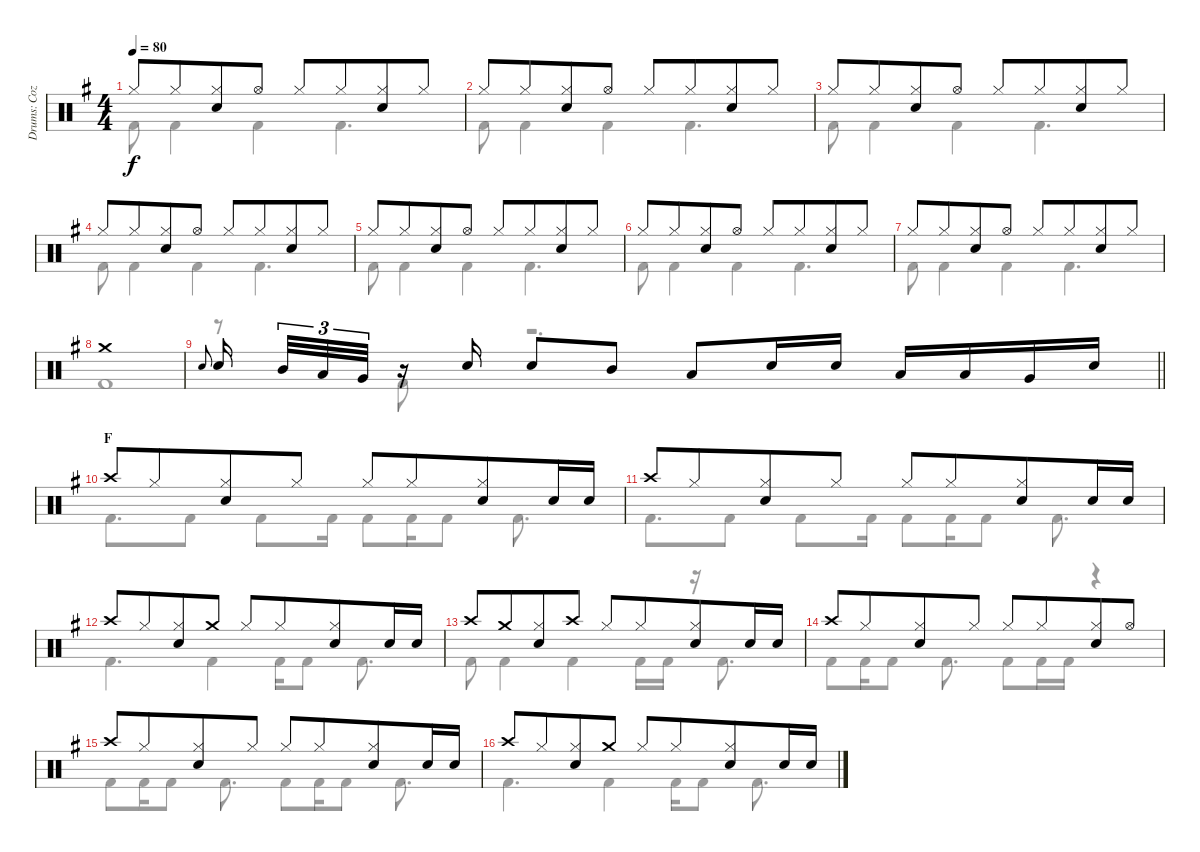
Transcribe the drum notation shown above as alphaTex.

\track ("Drums: Cozy" "Drums: Coz") {instrument percussion}
\staff {score}
\articulation defaults
\voice
\ts (4 4)
\tempo 80
\clef neutral
\ks g "Hi-Hat (closed)".8{dy f} "Hi-Hat (closed)".8{beam merge}
("Hi-Hat (closed)" "Electric Snare (hit)").8 "Hi-Hat (open)".8 "Hi-Hat (closed)".8 "Hi-Hat (closed)".8{beam merge} ("Hi-Hat (closed)" "Electric Snare (hit)").8 "Hi-Hat (closed)".8 |
"Hi-Hat (closed)".8 "Hi-Hat (closed)".8{beam merge} ("Hi-Hat (closed)" "Electric Snare (hit)").8 "Hi-Hat (open)".8 "Hi-Hat (closed)".8 "Hi-Hat (closed)".8{beam merge} ("Hi-Hat (closed)" "Electric Snare (hit)").8 "Hi-Hat (closed)".8 |
"Hi-Hat (closed)".8 "Hi-Hat (closed)".8{beam merge} ("Hi-Hat (closed)" "Electric Snare (hit)").8 "Hi-Hat (open)".8 "Hi-Hat (closed)".8 "Hi-Hat (closed)".8{beam merge} ("Hi-Hat (closed)" "Electric Snare (hit)").8 "Hi-Hat (closed)".8 |
"Hi-Hat (closed)".8 "Hi-Hat (closed)".8{beam merge} ("Hi-Hat (closed)" "Electric Snare (hit)").8 "Hi-Hat (open)".8 "Hi-Hat (closed)".8 "Hi-Hat (closed)".8{beam merge} ("Hi-Hat (closed)" "Electric Snare (hit)").8 "Hi-Hat (closed)".8 |
"Hi-Hat (closed)".8 "Hi-Hat (closed)".8{beam merge} ("Hi-Hat (closed)" "Electric Snare (hit)").8 "Hi-Hat (open)".8 "Hi-Hat (closed)".8 "Hi-Hat (closed)".8{beam merge} ("Hi-Hat (closed)" "Electric Snare (hit)").8 "Hi-Hat (closed)".8 |
"Hi-Hat (closed)".8 "Hi-Hat (closed)".8{beam merge} ("Hi-Hat (closed)" "Electric Snare (hit)").8 "Hi-Hat (open)".8 "Hi-Hat (closed)".8 "Hi-Hat (closed)".8{beam merge} ("Hi-Hat (closed)" "Electric Snare (hit)").8 "Hi-Hat (closed)".8 |
"Hi-Hat (closed)".8 "Hi-Hat (closed)".8{beam merge} ("Hi-Hat (closed)" "Electric Snare (hit)").8 "Hi-Hat (open)".8 "Hi-Hat (closed)".8 "Hi-Hat (closed)".8{beam merge} ("Hi-Hat (closed)" "Electric Snare (hit)").8 "Hi-Hat (closed)".8 |
"Crash medium (hit)".1 |
\barLineRight lightlight "Electric Snare (hit)".8{gr onbeat} "Snare (hit) 2".16{beam splitsecondary} "Mid Tom (hit)".32{tu (3 2)} "Low Tom (hit)".32{tu (3 2)} "Very Low Tom (hit)".32{tu (3 2)}
r.16 "Electric Snare (hit)".16 "Electric Snare (hit)".8 "Mid Tom (hit)".8 "Low Tom (hit)".8 "Electric Snare (hit)".16 "Electric Snare (hit)".16 "Low Tom (hit)".16 "Low Tom (hit)".16 "Very Low Tom (hit)".16 "Electric Snare (hit)".16 |
\section ("" "F")
"Crash high (hit)".8 "Hi-Hat (closed)".8{beam merge} ("Hi-Hat (closed)" "Electric Snare (hit)").8 "Hi-Hat (closed)".8 "Hi-Hat (closed)".8 "Hi-Hat (closed)".8{beam merge} ("Hi-Hat (closed)" "Electric Snare (hit)").8 "Electric Snare (hit)".16 "Electric Snare (hit)".16 |
"Crash high (hit)".8 "Hi-Hat (closed)".8{beam merge} ("Hi-Hat (closed)" "Electric Snare (hit)").8 "Hi-Hat (closed)".8 "Hi-Hat (closed)".8 "Hi-Hat (closed)".8{beam merge} ("Hi-Hat (closed)" "Electric Snare (hit)").8 "Electric Snare (hit)".16 "Electric Snare (hit)".16 |
"Crash high (hit)".8 "Hi-Hat (closed)".8{beam merge} ("Hi-Hat (closed)" "Electric Snare (hit)").8 "Crash medium (hit)".8 "Hi-Hat (closed)".8 "Hi-Hat (closed)".8{beam merge} ("Hi-Hat (closed)" "Electric Snare (hit)").8 "Electric Snare (hit)".16 "Electric Snare (hit)".16 |
"Crash high (hit)".8 "Crash medium (hit)".8{beam merge} ("Hi-Hat (closed)" "Electric Snare (hit)").8 "Crash high (hit)".8 "Hi-Hat (closed)".8 "Hi-Hat (closed)".8{beam merge} ("Hi-Hat (closed)" "Electric Snare (hit)").8 "Electric Snare (hit)".16 "Electric Snare (hit)".16 |
"Crash high (hit)".8 "Hi-Hat (closed)".8{beam merge} ("Hi-Hat (closed)" "Electric Snare (hit)").8 "Hi-Hat (closed)".8 "Hi-Hat (closed)".8 "Hi-Hat (closed)".8{beam merge} ("Hi-Hat (closed)" "Electric Snare (hit)").8 "Hi-Hat (open)".8 |
"Crash high (hit)".8 "Hi-Hat (closed)".8{beam merge} ("Hi-Hat (closed)" "Electric Snare (hit)").8 "Hi-Hat (closed)".8 "Hi-Hat (closed)".8 "Hi-Hat (closed)".8{beam merge} ("Hi-Hat (closed)" "Electric Snare (hit)").8 "Electric Snare (hit)".16 "Electric Snare (hit)".16 |
"Crash high (hit)".8 "Hi-Hat (closed)".8{beam merge} ("Hi-Hat (closed)" "Electric Snare (hit)").8 "Crash medium (hit)".8 "Hi-Hat (closed)".8 "Hi-Hat (closed)".8{beam merge} ("Hi-Hat (closed)" "Electric Snare (hit)").8 "Electric Snare (hit)".16 "Electric Snare (hit)".16
\voice
\clef neutral
\ottava regular
\simile none
\ks g "Kick (hit) 2".8{dy f} "Kick (hit) 2".4 "Kick (hit) 2".4 "Kick (hit) 2".4{d}
|
"Kick (hit) 2".8 "Kick (hit) 2".4 "Kick (hit) 2".4 "Kick (hit) 2".4{d} |
"Kick (hit) 2".8 "Kick (hit) 2".4 "Kick (hit) 2".4 "Kick (hit) 2".4{d} |
"Kick (hit) 2".8 "Kick (hit) 2".4 "Kick (hit) 2".4 "Kick (hit) 2".4{d} |
"Kick (hit) 2".8 "Kick (hit) 2".4 "Kick (hit) 2".4 "Kick (hit) 2".4{d} |
"Kick (hit) 2".8 "Kick (hit) 2".4 "Kick (hit) 2".4 "Kick (hit) 2".4{d} |
"Kick (hit) 2".8 "Kick (hit) 2".4 "Kick (hit) 2".4 "Kick (hit) 2".4{d} |
"Kick (hit) 2".1 |
\barLineRight lightlight
r.8 "Kick (hit) 2".8 r.2{d} |
"Kick (hit) 2".8{d} "Kick (hit) 2".8 "Kick (hit) 2".8 "Kick (hit) 2".16 "Kick (hit) 2".8 "Kick (hit) 2".16 "Kick (hit) 2".8 "Kick (hit) 2".8{d} |
"Kick (hit) 2".8{d} "Kick (hit) 2".8 "Kick (hit) 2".8 "Kick (hit) 2".16 "Kick (hit) 2".8 "Kick (hit) 2".16 "Kick (hit) 2".8 "Kick (hit) 2".8{d} |
"Kick (hit) 2".4{d} "Kick (hit) 2".4 "Kick (hit) 2".16 "Kick (hit) 2".8 "Kick (hit) 2".8{d} |
"Kick (hit) 2".8 "Kick (hit) 2".4 "Kick (hit) 2".4 "Kick (hit) 2".16 "Kick (hit) 2".16 r.16 "Kick (hit) 2".8{d} |
"Kick (hit) 2".8 "Kick (hit) 2".16 "Kick (hit) 2".8 "Kick (hit) 2".8{d} "Kick (hit) 2".8 "Kick (hit) 2".16 "Kick (hit) 2".16 r.4 |
"Kick (hit) 2".8 "Kick (hit) 2".16 "Kick (hit) 2".8 "Kick (hit) 2".8{d} "Kick (hit) 2".8 "Kick (hit) 2".16 "Kick (hit) 2".8 "Kick (hit) 2".8{d} |
"Kick (hit) 2".4{d} "Kick (hit) 2".4 "Kick (hit) 2".16 "Kick (hit) 2".8 "Kick (hit) 2".8{d}
